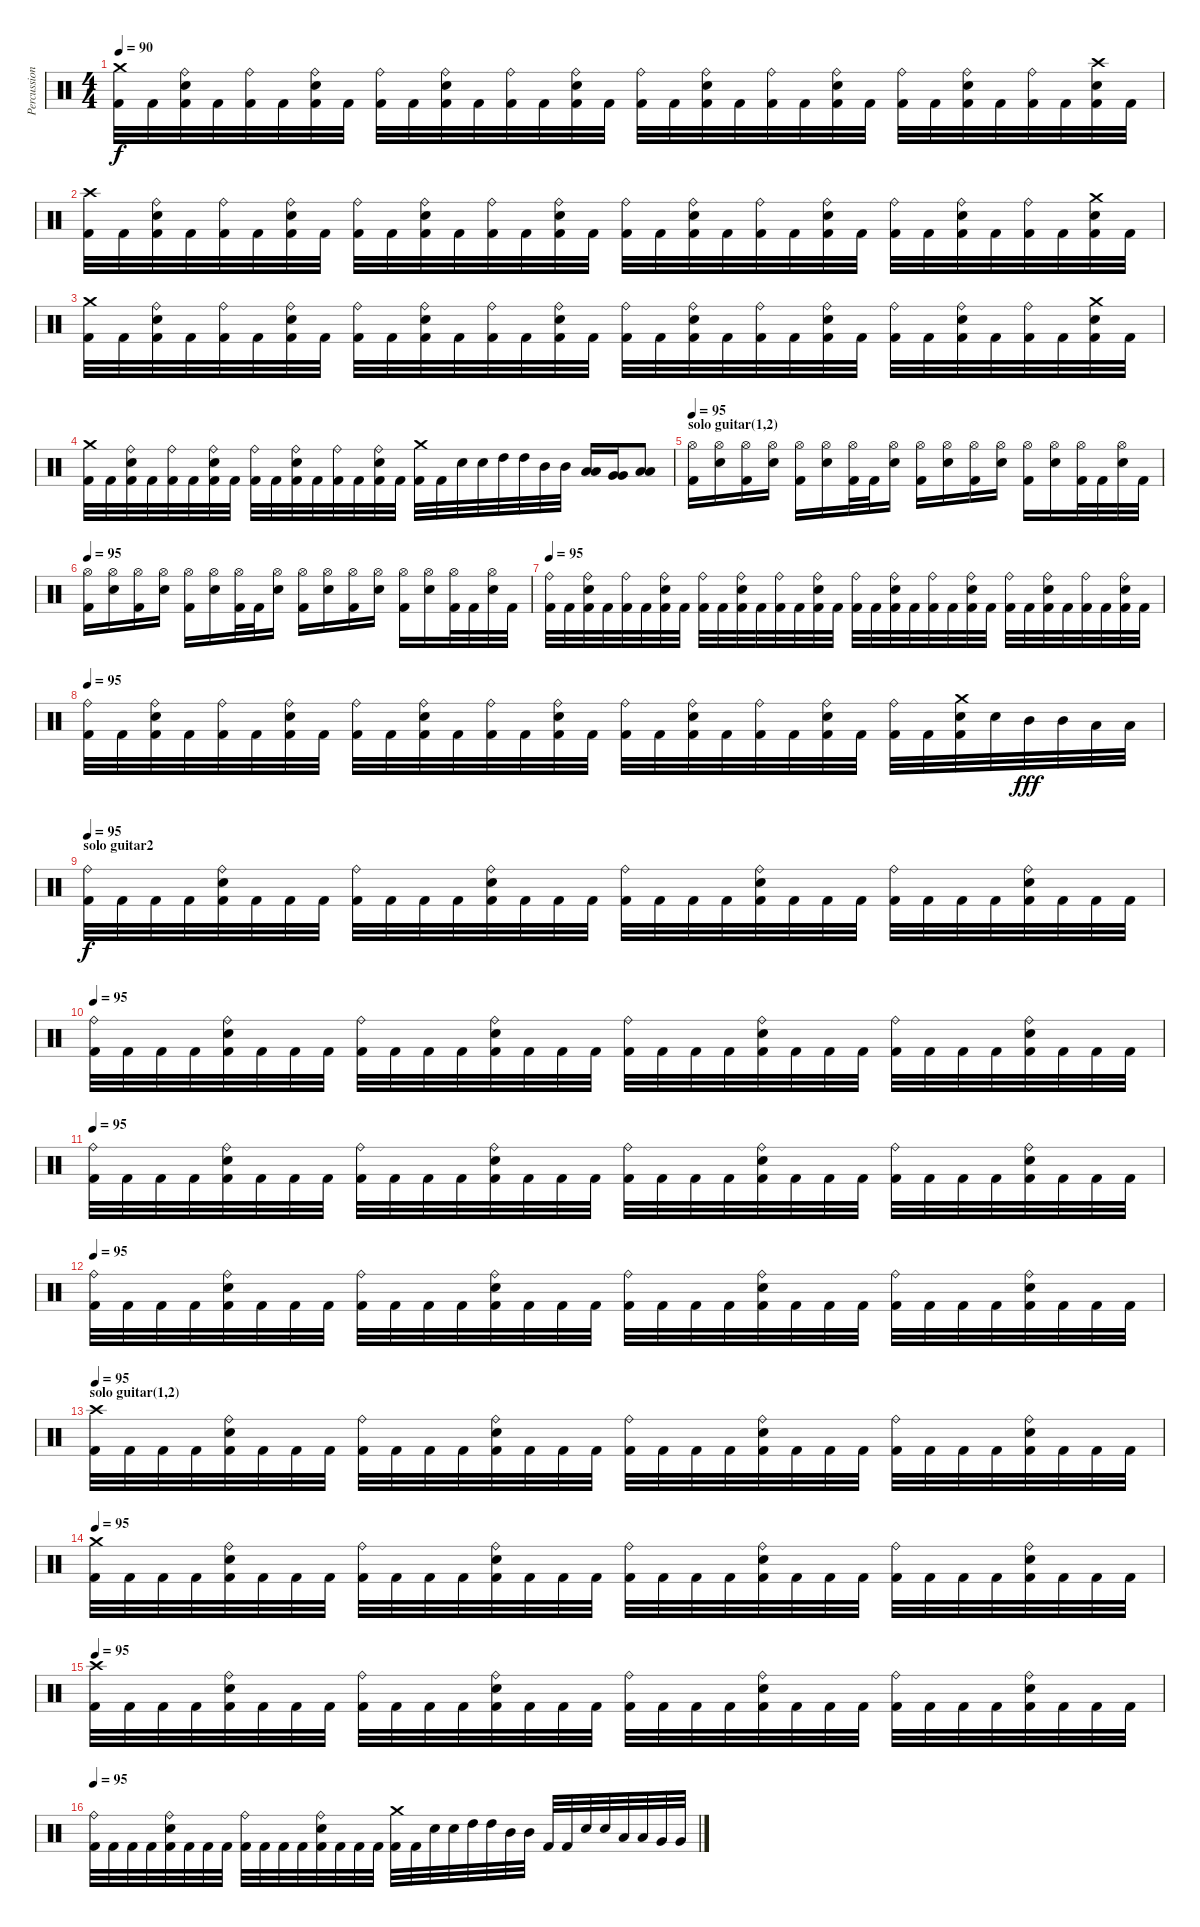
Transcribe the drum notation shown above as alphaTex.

\track ("Percussions" "Percussion") {instrument percussion}
\staff {score}
\articulation defaults
\ts (4 4)
\tempo 90
\clef neutral
\ks c
("Crash medium (hit)" "Kick (hit) 2").32{dy f} "Kick (hit) 2".32 ("Ride (bell)" "Electric Snare (hit)" "Kick (hit) 2").32 "Kick (hit) 2".32 ("Ride (bell)" "Kick (hit) 2").32 "Kick (hit) 2".32 ("Ride (bell)" "Electric Snare (hit)" "Kick (hit) 2").32 "Kick (hit) 2".32 ("Ride (bell)" "Kick (hit) 2").32 "Kick (hit) 2".32 ("Ride (bell)" "Electric Snare (hit)" "Kick (hit) 2").32 "Kick (hit) 2".32 ("Ride (bell)" "Kick (hit) 2").32 "Kick (hit) 2".32 ("Ride (bell)" "Electric Snare (hit)" "Kick (hit) 2").32 "Kick (hit) 2".32 ("Ride (bell)" "Kick (hit) 2").32 "Kick (hit) 2".32 ("Ride (bell)" "Electric Snare (hit)" "Kick (hit) 2").32 "Kick (hit) 2".32 ("Ride (bell)" "Kick (hit) 2").32 "Kick (hit) 2".32 ("Ride (bell)" "Electric Snare (hit)" "Kick (hit) 2").32 "Kick (hit) 2".32 ("Ride (bell)" "Kick (hit) 2").32 "Kick (hit) 2".32 ("Ride (bell)" "Electric Snare (hit)" "Kick (hit) 2").32 "Kick (hit) 2".32 ("Ride (bell)" "Kick (hit) 2").32 "Kick (hit) 2".32 ("Crash high (hit)" "Electric Snare (hit)" "Kick (hit) 2").32 "Kick (hit) 2".32 |
("Crash high (hit)" "Kick (hit) 2").32 "Kick (hit) 2".32 ("Ride (bell)" "Electric Snare (hit)" "Kick (hit) 2").32 "Kick (hit) 2".32 ("Ride (bell)" "Kick (hit) 2").32 "Kick (hit) 2".32 ("Ride (bell)" "Electric Snare (hit)" "Kick (hit) 2").32 "Kick (hit) 2".32 ("Ride (bell)" "Kick (hit) 2").32 "Kick (hit) 2".32 ("Ride (bell)" "Electric Snare (hit)" "Kick (hit) 2").32 "Kick (hit) 2".32 ("Ride (bell)" "Kick (hit) 2").32 "Kick (hit) 2".32 ("Ride (bell)" "Electric Snare (hit)" "Kick (hit) 2").32 "Kick (hit) 2".32 ("Ride (bell)" "Kick (hit) 2").32 "Kick (hit) 2".32 ("Ride (bell)" "Electric Snare (hit)" "Kick (hit) 2").32 "Kick (hit) 2".32 ("Ride (bell)" "Kick (hit) 2").32 "Kick (hit) 2".32 ("Ride (bell)" "Electric Snare (hit)" "Kick (hit) 2").32 "Kick (hit) 2".32 ("Ride (bell)" "Kick (hit) 2").32 "Kick (hit) 2".32 ("Ride (bell)" "Electric Snare (hit)" "Kick (hit) 2").32 "Kick (hit) 2".32 ("Ride (bell)" "Kick (hit) 2").32 "Kick (hit) 2".32 ("Crash medium (hit)" "Electric Snare (hit)" "Kick (hit) 2").32 "Kick (hit) 2".32 |
("Crash medium (hit)" "Kick (hit) 2").32 "Kick (hit) 2".32 ("Ride (bell)" "Electric Snare (hit)" "Kick (hit) 2").32 "Kick (hit) 2".32 ("Ride (bell)" "Kick (hit) 2").32 "Kick (hit) 2".32 ("Ride (bell)" "Electric Snare (hit)" "Kick (hit) 2").32 "Kick (hit) 2".32 ("Ride (bell)" "Kick (hit) 2").32 "Kick (hit) 2".32 ("Ride (bell)" "Electric Snare (hit)" "Kick (hit) 2").32 "Kick (hit) 2".32 ("Ride (bell)" "Kick (hit) 2").32 "Kick (hit) 2".32 ("Ride (bell)" "Electric Snare (hit)" "Kick (hit) 2").32 "Kick (hit) 2".32 ("Ride (bell)" "Kick (hit) 2").32 "Kick (hit) 2".32 ("Ride (bell)" "Electric Snare (hit)" "Kick (hit) 2").32 "Kick (hit) 2".32 ("Ride (bell)" "Kick (hit) 2").32 "Kick (hit) 2".32 ("Ride (bell)" "Electric Snare (hit)" "Kick (hit) 2").32 "Kick (hit) 2".32 ("Ride (bell)" "Kick (hit) 2").32 "Kick (hit) 2".32 ("Ride (bell)" "Electric Snare (hit)" "Kick (hit) 2").32 "Kick (hit) 2".32 ("Ride (bell)" "Kick (hit) 2").32 "Kick (hit) 2".32 ("Crash medium (hit)" "Electric Snare (hit)" "Kick (hit) 2").32 "Kick (hit) 2".32 |
("Crash medium (hit)" "Kick (hit) 2").32 "Kick (hit) 2".32 ("Ride (bell)" "Electric Snare (hit)" "Kick (hit) 2").32 "Kick (hit) 2".32 ("Ride (bell)" "Kick (hit) 2").32 "Kick (hit) 2".32 ("Ride (bell)" "Electric Snare (hit)" "Kick (hit) 2").32 "Kick (hit) 2".32 ("Ride (bell)" "Kick (hit) 2").32 "Kick (hit) 2".32 ("Ride (bell)" "Electric Snare (hit)" "Kick (hit) 2").32 "Kick (hit) 2".32 ("Ride (bell)" "Kick (hit) 2").32 "Kick (hit) 2".32 ("Ride (bell)" "Electric Snare (hit)" "Kick (hit) 2").32 "Kick (hit) 2".32 ("Crash medium (hit)" "Kick (hit) 2").32 "Kick (hit) 2".32 "Electric Snare (hit)".32 "Electric Snare (hit)".32 "High Tom (hit)".32 "High Tom (hit)".32 "Mid Tom (hit)".32 "Mid Tom (hit)".32 ("Low Tom (hit)" "Low Tom (hit)").16 ("Very Low Tom (hit)" "Very Low Tom (hit)").16 ("Low Tom (hit)" "Low Tom (hit)").8 |
\section ("" "solo guitar(1,2)")
\tempo 95
("Hi-Hat (open)" "Kick (hit) 2").16 ("Hi-Hat (open)" "Electric Snare (hit)").16 ("Hi-Hat (open)" "Kick (hit) 2").16 ("Hi-Hat (open)" "Electric Snare (hit)").16 ("Hi-Hat (open)" "Kick (hit) 2").16 ("Hi-Hat (open)" "Electric Snare (hit)").16 ("Hi-Hat (open)" "Kick (hit) 2").32 "Kick (hit) 2".32 ("Hi-Hat (open)" "Electric Snare (hit)").16 ("Hi-Hat (open)" "Kick (hit) 2").16 ("Hi-Hat (open)" "Electric Snare (hit)").16 ("Hi-Hat (open)" "Kick (hit) 2").16 ("Hi-Hat (open)" "Electric Snare (hit)").16 ("Hi-Hat (open)" "Kick (hit) 2").16 ("Hi-Hat (open)" "Electric Snare (hit)").16 ("Hi-Hat (open)" "Kick (hit) 2").32 "Kick (hit) 2".32 ("Hi-Hat (open)" "Electric Snare (hit)").32 "Kick (hit) 2".32 |
\tempo 95
("Hi-Hat (open)" "Kick (hit) 2").16 ("Hi-Hat (open)" "Electric Snare (hit)").16 ("Hi-Hat (open)" "Kick (hit) 2").16 ("Hi-Hat (open)" "Electric Snare (hit)").16 ("Hi-Hat (open)" "Kick (hit) 2").16 ("Hi-Hat (open)" "Electric Snare (hit)").16 ("Hi-Hat (open)" "Kick (hit) 2").32 "Kick (hit) 2".32 ("Hi-Hat (open)" "Electric Snare (hit)").16 ("Hi-Hat (open)" "Kick (hit) 2").16 ("Hi-Hat (open)" "Electric Snare (hit)").16 ("Hi-Hat (open)" "Kick (hit) 2").16 ("Hi-Hat (open)" "Electric Snare (hit)").16 ("Hi-Hat (open)" "Kick (hit) 2").16 ("Hi-Hat (open)" "Electric Snare (hit)").16 ("Hi-Hat (open)" "Kick (hit) 2").32 "Kick (hit) 2".32 ("Hi-Hat (open)" "Electric Snare (hit)").32 "Kick (hit) 2".32 |
\tempo 95
("Ride (bell)" "Kick (hit) 2").32 "Kick (hit) 2".32 ("Ride (bell)" "Electric Snare (hit)" "Kick (hit) 2").32 "Kick (hit) 2".32 ("Ride (bell)" "Kick (hit) 2").32 "Kick (hit) 2".32 ("Ride (bell)" "Electric Snare (hit)" "Kick (hit) 2").32 "Kick (hit) 2".32 ("Ride (bell)" "Kick (hit) 2").32 "Kick (hit) 2".32 ("Ride (bell)" "Electric Snare (hit)" "Kick (hit) 2").32 "Kick (hit) 2".32 ("Ride (bell)" "Kick (hit) 2").32 "Kick (hit) 2".32 ("Ride (bell)" "Electric Snare (hit)" "Kick (hit) 2").32 "Kick (hit) 2".32 ("Ride (bell)" "Kick (hit) 2").32 "Kick (hit) 2".32 ("Ride (bell)" "Electric Snare (hit)" "Kick (hit) 2").32 "Kick (hit) 2".32 ("Ride (bell)" "Kick (hit) 2").32 "Kick (hit) 2".32 ("Ride (bell)" "Electric Snare (hit)" "Kick (hit) 2").32 "Kick (hit) 2".32 ("Ride (bell)" "Kick (hit) 2").32 "Kick (hit) 2".32 ("Ride (bell)" "Electric Snare (hit)" "Kick (hit) 2").32 "Kick (hit) 2".32 ("Ride (bell)" "Kick (hit) 2").32 "Kick (hit) 2".32 ("Ride (bell)" "Electric Snare (hit)" "Kick (hit) 2").32 "Kick (hit) 2".32 |
\tempo 95
("Ride (bell)" "Kick (hit) 2").32 "Kick (hit) 2".32 ("Ride (bell)" "Electric Snare (hit)" "Kick (hit) 2").32 "Kick (hit) 2".32 ("Ride (bell)" "Kick (hit) 2").32 "Kick (hit) 2".32 ("Ride (bell)" "Electric Snare (hit)" "Kick (hit) 2").32 "Kick (hit) 2".32 ("Ride (bell)" "Kick (hit) 2").32 "Kick (hit) 2".32 ("Ride (bell)" "Electric Snare (hit)" "Kick (hit) 2").32 "Kick (hit) 2".32 ("Ride (bell)" "Kick (hit) 2").32 "Kick (hit) 2".32 ("Ride (bell)" "Electric Snare (hit)" "Kick (hit) 2").32 "Kick (hit) 2".32 ("Ride (bell)" "Kick (hit) 2").32 "Kick (hit) 2".32 ("Ride (bell)" "Electric Snare (hit)" "Kick (hit) 2").32 "Kick (hit) 2".32 ("Ride (bell)" "Kick (hit) 2").32 "Kick (hit) 2".32 ("Ride (bell)" "Electric Snare (hit)" "Kick (hit) 2").32 "Kick (hit) 2".32 ("Ride (bell)" "Kick (hit) 2").32 "Kick (hit) 2".32 ("Crash medium (hit)" "Electric Snare (hit)" "Kick (hit) 2").32 "Electric Snare (hit)".32 "Mid Tom (hit)".32{dy fff} "Mid Tom (hit)".32 "Low Tom (hit)".32 "Low Tom (hit)".32 |
\section ("" "solo guitar2")
\tempo 95
("Ride (bell)" "Kick (hit) 2").32{dy f} "Kick (hit) 2".32 "Kick (hit) 2".32 "Kick (hit) 2".32 ("Ride (bell)" "Electric Snare (hit)" "Kick (hit) 2").32 "Kick (hit) 2".32 "Kick (hit) 2".32 "Kick (hit) 2".32 ("Ride (bell)" "Kick (hit) 2").32 "Kick (hit) 2".32 "Kick (hit) 2".32 "Kick (hit) 2".32 ("Ride (bell)" "Electric Snare (hit)" "Kick (hit) 2").32 "Kick (hit) 2".32 "Kick (hit) 2".32 "Kick (hit) 2".32 ("Ride (bell)" "Kick (hit) 2").32 "Kick (hit) 2".32 "Kick (hit) 2".32 "Kick (hit) 2".32 ("Ride (bell)" "Electric Snare (hit)" "Kick (hit) 2").32 "Kick (hit) 2".32 "Kick (hit) 2".32 "Kick (hit) 2".32 ("Ride (bell)" "Kick (hit) 2").32 "Kick (hit) 2".32 "Kick (hit) 2".32 "Kick (hit) 2".32 ("Ride (bell)" "Electric Snare (hit)" "Kick (hit) 2").32 "Kick (hit) 2".32 "Kick (hit) 2".32 "Kick (hit) 2".32 |
\tempo 95
("Ride (bell)" "Kick (hit) 2").32 "Kick (hit) 2".32 "Kick (hit) 2".32 "Kick (hit) 2".32 ("Ride (bell)" "Electric Snare (hit)" "Kick (hit) 2").32 "Kick (hit) 2".32 "Kick (hit) 2".32 "Kick (hit) 2".32 ("Ride (bell)" "Kick (hit) 2").32 "Kick (hit) 2".32 "Kick (hit) 2".32 "Kick (hit) 2".32 ("Ride (bell)" "Electric Snare (hit)" "Kick (hit) 2").32 "Kick (hit) 2".32 "Kick (hit) 2".32 "Kick (hit) 2".32 ("Ride (bell)" "Kick (hit) 2").32 "Kick (hit) 2".32 "Kick (hit) 2".32 "Kick (hit) 2".32 ("Ride (bell)" "Electric Snare (hit)" "Kick (hit) 2").32 "Kick (hit) 2".32 "Kick (hit) 2".32 "Kick (hit) 2".32 ("Ride (bell)" "Kick (hit) 2").32 "Kick (hit) 2".32 "Kick (hit) 2".32 "Kick (hit) 2".32 ("Ride (bell)" "Electric Snare (hit)" "Kick (hit) 2").32 "Kick (hit) 2".32 "Kick (hit) 2".32 "Kick (hit) 2".32 |
\tempo 95
("Ride (bell)" "Kick (hit) 2").32 "Kick (hit) 2".32 "Kick (hit) 2".32 "Kick (hit) 2".32 ("Ride (bell)" "Electric Snare (hit)" "Kick (hit) 2").32 "Kick (hit) 2".32 "Kick (hit) 2".32 "Kick (hit) 2".32 ("Ride (bell)" "Kick (hit) 2").32 "Kick (hit) 2".32 "Kick (hit) 2".32 "Kick (hit) 2".32 ("Ride (bell)" "Electric Snare (hit)" "Kick (hit) 2").32 "Kick (hit) 2".32 "Kick (hit) 2".32 "Kick (hit) 2".32 ("Ride (bell)" "Kick (hit) 2").32 "Kick (hit) 2".32 "Kick (hit) 2".32 "Kick (hit) 2".32 ("Ride (bell)" "Electric Snare (hit)" "Kick (hit) 2").32 "Kick (hit) 2".32 "Kick (hit) 2".32 "Kick (hit) 2".32 ("Ride (bell)" "Kick (hit) 2").32 "Kick (hit) 2".32 "Kick (hit) 2".32 "Kick (hit) 2".32 ("Ride (bell)" "Electric Snare (hit)" "Kick (hit) 2").32 "Kick (hit) 2".32 "Kick (hit) 2".32 "Kick (hit) 2".32 |
\tempo 95
("Ride (bell)" "Kick (hit) 2").32 "Kick (hit) 2".32 "Kick (hit) 2".32 "Kick (hit) 2".32 ("Ride (bell)" "Electric Snare (hit)" "Kick (hit) 2").32 "Kick (hit) 2".32 "Kick (hit) 2".32 "Kick (hit) 2".32 ("Ride (bell)" "Kick (hit) 2").32 "Kick (hit) 2".32 "Kick (hit) 2".32 "Kick (hit) 2".32 ("Ride (bell)" "Electric Snare (hit)" "Kick (hit) 2").32 "Kick (hit) 2".32 "Kick (hit) 2".32 "Kick (hit) 2".32 ("Ride (bell)" "Kick (hit) 2").32 "Kick (hit) 2".32 "Kick (hit) 2".32 "Kick (hit) 2".32 ("Ride (bell)" "Electric Snare (hit)" "Kick (hit) 2").32 "Kick (hit) 2".32 "Kick (hit) 2".32 "Kick (hit) 2".32 ("Ride (bell)" "Kick (hit) 2").32 "Kick (hit) 2".32 "Kick (hit) 2".32 "Kick (hit) 2".32 ("Ride (bell)" "Electric Snare (hit)" "Kick (hit) 2").32 "Kick (hit) 2".32 "Kick (hit) 2".32 "Kick (hit) 2".32 |
\section ("" "solo guitar(1,2)")
\tempo 95
("Crash high (hit)" "Kick (hit) 2").32 "Kick (hit) 2".32 "Kick (hit) 2".32 "Kick (hit) 2".32 ("Ride (bell)" "Electric Snare (hit)" "Kick (hit) 2").32 "Kick (hit) 2".32 "Kick (hit) 2".32 "Kick (hit) 2".32 ("Ride (bell)" "Kick (hit) 2").32 "Kick (hit) 2".32 "Kick (hit) 2".32 "Kick (hit) 2".32 ("Ride (bell)" "Electric Snare (hit)" "Kick (hit) 2").32 "Kick (hit) 2".32 "Kick (hit) 2".32 "Kick (hit) 2".32 ("Ride (bell)" "Kick (hit) 2").32 "Kick (hit) 2".32 "Kick (hit) 2".32 "Kick (hit) 2".32 ("Ride (bell)" "Electric Snare (hit)" "Kick (hit) 2").32 "Kick (hit) 2".32 "Kick (hit) 2".32 "Kick (hit) 2".32 ("Ride (bell)" "Kick (hit) 2").32 "Kick (hit) 2".32 "Kick (hit) 2".32 "Kick (hit) 2".32 ("Ride (bell)" "Electric Snare (hit)" "Kick (hit) 2").32 "Kick (hit) 2".32 "Kick (hit) 2".32 "Kick (hit) 2".32 |
\tempo 95
("Crash medium (hit)" "Kick (hit) 2").32 "Kick (hit) 2".32 "Kick (hit) 2".32 "Kick (hit) 2".32 ("Ride (bell)" "Electric Snare (hit)" "Kick (hit) 2").32 "Kick (hit) 2".32 "Kick (hit) 2".32 "Kick (hit) 2".32 ("Ride (bell)" "Kick (hit) 2").32 "Kick (hit) 2".32 "Kick (hit) 2".32 "Kick (hit) 2".32 ("Ride (bell)" "Electric Snare (hit)" "Kick (hit) 2").32 "Kick (hit) 2".32 "Kick (hit) 2".32 "Kick (hit) 2".32 ("Ride (bell)" "Kick (hit) 2").32 "Kick (hit) 2".32 "Kick (hit) 2".32 "Kick (hit) 2".32 ("Ride (bell)" "Electric Snare (hit)" "Kick (hit) 2").32 "Kick (hit) 2".32 "Kick (hit) 2".32 "Kick (hit) 2".32 ("Ride (bell)" "Kick (hit) 2").32 "Kick (hit) 2".32 "Kick (hit) 2".32 "Kick (hit) 2".32 ("Ride (bell)" "Electric Snare (hit)" "Kick (hit) 2").32 "Kick (hit) 2".32 "Kick (hit) 2".32 "Kick (hit) 2".32 |
\tempo 95
("Crash high (hit)" "Kick (hit) 2").32 "Kick (hit) 2".32 "Kick (hit) 2".32 "Kick (hit) 2".32 ("Ride (bell)" "Electric Snare (hit)" "Kick (hit) 2").32 "Kick (hit) 2".32 "Kick (hit) 2".32 "Kick (hit) 2".32 ("Ride (bell)" "Kick (hit) 2").32 "Kick (hit) 2".32 "Kick (hit) 2".32 "Kick (hit) 2".32 ("Ride (bell)" "Electric Snare (hit)" "Kick (hit) 2").32 "Kick (hit) 2".32 "Kick (hit) 2".32 "Kick (hit) 2".32 ("Ride (bell)" "Kick (hit) 2").32 "Kick (hit) 2".32 "Kick (hit) 2".32 "Kick (hit) 2".32 ("Ride (bell)" "Electric Snare (hit)" "Kick (hit) 2").32 "Kick (hit) 2".32 "Kick (hit) 2".32 "Kick (hit) 2".32 ("Ride (bell)" "Kick (hit) 2").32 "Kick (hit) 2".32 "Kick (hit) 2".32 "Kick (hit) 2".32 ("Ride (bell)" "Electric Snare (hit)" "Kick (hit) 2").32 "Kick (hit) 2".32 "Kick (hit) 2".32 "Kick (hit) 2".32 |
\tempo 95
("Ride (bell)" "Kick (hit) 2").32 "Kick (hit) 2".32 "Kick (hit) 2".32 "Kick (hit) 2".32 ("Ride (bell)" "Electric Snare (hit)" "Kick (hit) 2").32 "Kick (hit) 2".32 "Kick (hit) 2".32 "Kick (hit) 2".32 ("Ride (bell)" "Kick (hit) 2").32 "Kick (hit) 2".32 "Kick (hit) 2".32 "Kick (hit) 2".32 ("Ride (bell)" "Electric Snare (hit)" "Kick (hit) 2").32 "Kick (hit) 2".32 "Kick (hit) 2".32 "Kick (hit) 2".32 ("Crash medium (hit)" "Kick (hit) 2").32 "Kick (hit) 2".32 "Electric Snare (hit)".32 "Electric Snare (hit)".32 "High Tom (hit)".32 "High Tom (hit)".32 "Mid Tom (hit)".32 "Mid Tom (hit)".32 "Kick (hit) 2".32 "Kick (hit) 2".32 "Electric Snare (hit)".32 "Electric Snare (hit)".32 "Low Tom (hit)".32 "Low Tom (hit)".32 "Very Low Tom (hit)".32 "Very Low Tom (hit)".32
